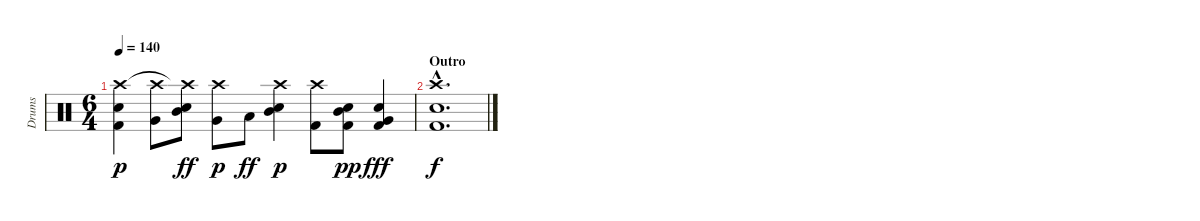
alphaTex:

\track ("Drums" "Drums") {instrument percussion}
\staff {score}
\articulation defaults
\ts (6 4)
\tempo 140
\clef neutral
\ks c
("Kick (hit) 2" "Electric Snare (hit)" "Crash high (hit)").4{dy p} ("Very Low Tom (hit)" "Crash high (hit)").8 ("Mid Tom (hit)" "Electric Snare (hit)" "Crash high (hit)"{t}).8{dy ff} ("Very Low Tom (hit)" "Crash high (hit)").8{dy p} "Low Floor Tom (hit)".8{dy ff} ("Mid Tom (hit)" "Electric Snare (hit)" "Crash high (hit)").4{dy p} ("Kick (hit) 2" "Crash high (hit)").8 ("Kick (hit) 2" "Mid Tom (hit)" "Electric Snare (hit)").8{dy pp} ("Kick (hit) 2" "Very Low Tom (hit)" "Electric Snare (hit)").4{dy fff} |
\section ("" "Outro")
("Kick (hit) 2"{hac} "Electric Snare (hit)"{hac} "Crash high (hit)"{hac}).1{d dy f}
